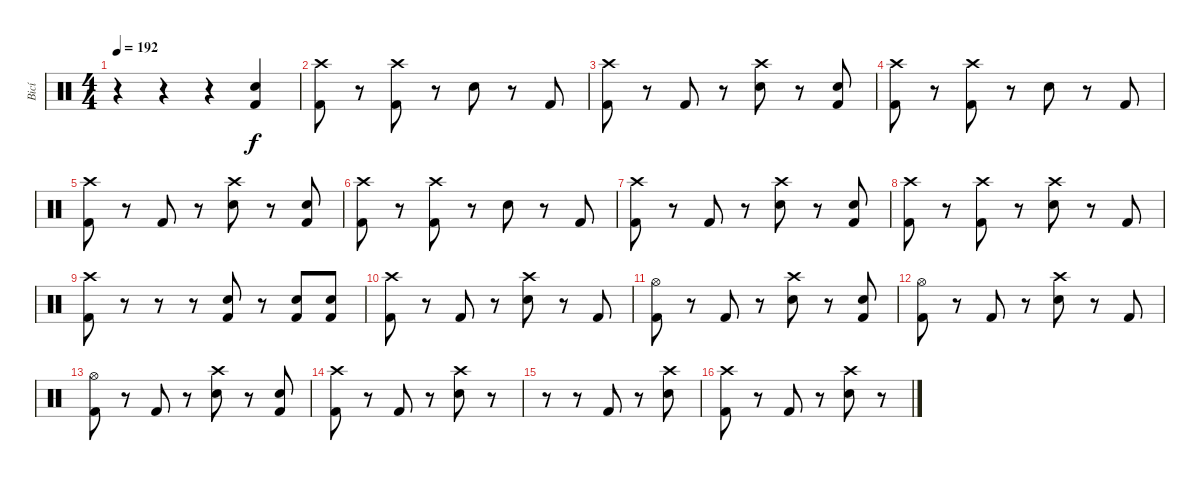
\track ("Bicí" "Bicí") {instrument percussion}
\staff {score}
\articulation defaults
\ts (4 4)
\tempo 192
\clef neutral
\ks c
r.4{dy f} r.4 r.4 ("Electric Snare (hit)" "Kick (hit) 2").4 |
("Crash high (hit)" "Kick (hit) 2").8 r.8 ("Crash high (hit)" "Kick (hit) 2").8 r.8 "Electric Snare (hit)".8 r.8 "Kick (hit) 2".8 |
("Crash high (hit)" "Kick (hit) 2").8 r.8 "Kick (hit) 2".8 r.8 ("Crash high (hit)" "Electric Snare (hit)").8 r.8 ("Electric Snare (hit)" "Kick (hit) 2").8 |
("Crash high (hit)" "Kick (hit) 2").8 r.8 ("Crash high (hit)" "Kick (hit) 2").8 r.8 "Electric Snare (hit)".8 r.8 "Kick (hit) 2".8 |
("Crash high (hit)" "Kick (hit) 2").8 r.8 "Kick (hit) 2".8 r.8 ("Crash high (hit)" "Electric Snare (hit)").8 r.8 ("Electric Snare (hit)" "Kick (hit) 2").8 |
("Crash high (hit)" "Kick (hit) 2").8 r.8 ("Crash high (hit)" "Kick (hit) 2").8 r.8 "Electric Snare (hit)".8 r.8 "Kick (hit) 2".8 |
("Crash high (hit)" "Kick (hit) 2").8 r.8 "Kick (hit) 2".8 r.8 ("Crash high (hit)" "Electric Snare (hit)").8 r.8 ("Electric Snare (hit)" "Kick (hit) 2").8 |
("Crash high (hit)" "Kick (hit) 2").8 r.8 ("Crash high (hit)" "Kick (hit) 2").8 r.8 ("Crash high (hit)" "Electric Snare (hit)").8 r.8 "Kick (hit) 2".8 |
("Crash high (hit)" "Kick (hit) 2").8 r.8 r.8 r.8 ("Electric Snare (hit)" "Kick (hit) 2").8 r.8 ("Electric Snare (hit)" "Kick (hit) 2").8 ("Electric Snare (hit)" "Kick (hit) 2").8 |
("Crash high (hit)" "Kick (hit) 2").8 r.8 "Kick (hit) 2".8 r.8 ("Crash high (hit)" "Electric Snare (hit)").8 r.8 "Kick (hit) 2".8 |
("Hi-Hat (open)" "Kick (hit) 2").8 r.8 "Kick (hit) 2".8 r.8 ("Crash high (hit)" "Electric Snare (hit)").8 r.8 ("Electric Snare (hit)" "Kick (hit) 2").8 |
("Hi-Hat (open)" "Kick (hit) 2").8 r.8 "Kick (hit) 2".8 r.8 ("Crash high (hit)" "Electric Snare (hit)").8 r.8 "Kick (hit) 2".8 |
("Hi-Hat (open)" "Kick (hit) 2").8 r.8 "Kick (hit) 2".8 r.8 ("Crash high (hit)" "Electric Snare (hit)").8 r.8 ("Electric Snare (hit)" "Kick (hit) 2").8 |
("Crash high (hit)" "Kick (hit) 2").8 r.8 "Kick (hit) 2".8 r.8 ("Crash high (hit)" "Electric Snare (hit)").8 r.8 |
r.8 r.8 "Kick (hit) 2".8 r.8 ("Crash high (hit)" "Electric Snare (hit)").8 |
("Crash high (hit)" "Kick (hit) 2").8 r.8 "Kick (hit) 2".8 r.8 ("Crash high (hit)" "Electric Snare (hit)").8 r.8
